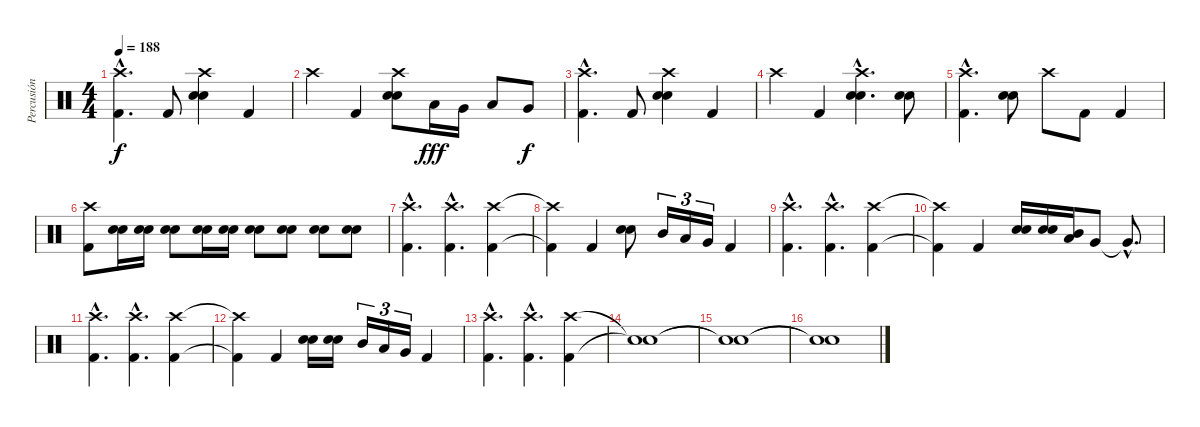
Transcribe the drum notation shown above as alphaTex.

\track ("Percusión" "Percusión") {instrument percussion}
\staff {score}
\articulation defaults
\ts (4 4)
\tempo 188
\clef neutral
\ks c
("Crash high (hit)"{hac} "Kick (hit) 2"{hac}).4{d dy f} "Kick (hit) 2".8 ("Crash high (hit)" "Electric Snare (hit)" "Snare (hit) 2").4 "Kick (hit) 2".4 |
"Crash high (hit)".4 "Kick (hit) 2".4 ("Crash high (hit)" "Electric Snare (hit)" "Snare (hit) 2").8 "Low Tom (hit)".16{dy fff} "Very Low Tom (hit)".16 "Low Floor Tom (hit)".8 "Very Low Tom (hit)".8{dy f} |
("Crash high (hit)"{hac} "Kick (hit) 2"{hac}).4{d} "Kick (hit) 2".8 ("Crash high (hit)" "Electric Snare (hit)" "Snare (hit) 2").4 "Kick (hit) 2".4 |
"Crash high (hit)".4 "Kick (hit) 2".4 ("Crash high (hit)"{hac} "Electric Snare (hit)"{hac} "Snare (hit) 2"{hac}).4{d} ("Electric Snare (hit)" "Snare (hit) 2").8 |
("Crash high (hit)"{hac} "Kick (hit) 2"{hac}).4{d} ("Electric Snare (hit)" "Snare (hit) 2").8 "Crash high (hit)".8 "Kick (hit) 2".8 "Kick (hit) 2".4 |
("Crash high (hit)" "Kick (hit) 2").8 ("Electric Snare (hit)" "Snare (hit) 2").16 ("Electric Snare (hit)" "Snare (hit) 2").16 ("Electric Snare (hit)" "Snare (hit) 2").8 ("Electric Snare (hit)" "Snare (hit) 2").16 ("Electric Snare (hit)" "Snare (hit) 2").16 ("Electric Snare (hit)" "Snare (hit) 2").8 ("Electric Snare (hit)" "Snare (hit) 2").8 ("Electric Snare (hit)" "Snare (hit) 2").8 ("Electric Snare (hit)" "Snare (hit) 2").8 |
("Crash high (hit)"{hac} "Kick (hit) 2"{hac}).4{d} ("Crash high (hit)"{hac} "Kick (hit) 2"{hac}).4{d} ("Crash high (hit)" "Kick (hit) 2").4 |
("Crash high (hit)"{t} "Kick (hit) 2"{t}).4 "Kick (hit) 2".4 ("Electric Snare (hit)" "Snare (hit) 2").8 "Mid Tom (hit)".16{tu (3 2)} "Low Tom (hit)".16{tu (3 2)} "Very Low Tom (hit)".16{tu (3 2)} "Kick (hit) 2".4 |
("Crash high (hit)"{hac} "Kick (hit) 2"{hac}).4{d} ("Crash high (hit)"{hac} "Kick (hit) 2"{hac}).4{d} ("Crash high (hit)" "Kick (hit) 2").4 |
("Crash high (hit)"{t} "Kick (hit) 2"{t}).4 "Kick (hit) 2".4 ("Electric Snare (hit)" "Snare (hit) 2").16 ("Electric Snare (hit)" "Snare (hit) 2").16 ("Mid Tom (hit)" "Low Tom (hit)").16 "Very Low Tom (hit)".8 "Very Low Tom (hit)"{hac t}.8{d} |
("Crash high (hit)"{hac} "Kick (hit) 2"{hac}).4{d} ("Crash high (hit)"{hac} "Kick (hit) 2"{hac}).4{d} ("Crash high (hit)" "Kick (hit) 2").4 |
("Crash high (hit)"{t} "Kick (hit) 2"{t}).4 "Kick (hit) 2".4 ("Electric Snare (hit)" "Snare (hit) 2").16 ("Electric Snare (hit)" "Snare (hit) 2").16 "Mid Tom (hit)".16{tu (3 2)} "Low Tom (hit)".16{tu (3 2)} "Very Low Tom (hit)".16{tu (3 2)} "Kick (hit) 2".4 |
("Crash high (hit)"{hac} "Kick (hit) 2"{hac}).4{d} ("Crash high (hit)"{hac} "Kick (hit) 2"{hac}).4{d} ("Crash high (hit)" "Kick (hit) 2").4 |
("Snare (hit)"{t} "Snare (hit)"{t}).1 |
("Snare (hit)"{t} "Snare (hit)"{t}).1 |
("Snare (hit)"{t} "Snare (hit)"{t}).1
